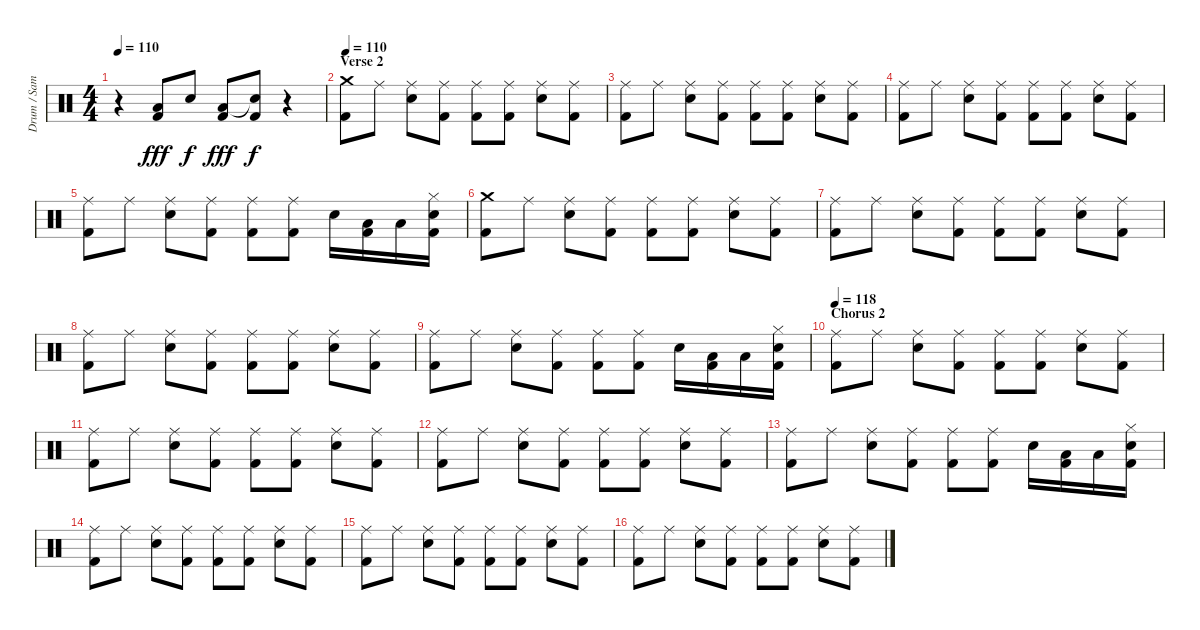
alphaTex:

\track ("Drum / Sam" "Drum / Sam") {instrument percussion}
\staff {score}
\articulation defaults
\ts (4 4)
\tempo 110
\clef neutral
\ks c
r.4{dy fff} ("Low Tom (hit)" "Kick (hit) 2").8 "Snare (hit) 2".8{dy f} ("Low Tom (hit)" "Kick (hit) 2").8{dy fff} ("Snare (hit) 2"{t} "Kick (hit) 2").8{dy f} r.4 |
\section ("" "Verse 2")
\tempo 110
("Crash medium (hit)" "Kick (hit) 2").8 "Ride (middle)".8 ("Ride (middle)" "Snare (hit) 2").8 ("Ride (middle)" "Kick (hit) 2").8 ("Ride (middle)" "Kick (hit) 2").8 ("Ride (middle)" "Kick (hit) 2").8 ("Ride (middle)" "Snare (hit) 2").8 ("Ride (middle)" "Kick (hit) 2").8 |
("Ride (middle)" "Kick (hit) 2").8 "Ride (middle)".8 ("Ride (middle)" "Snare (hit) 2").8 ("Ride (middle)" "Kick (hit) 2").8 ("Ride (middle)" "Kick (hit) 2").8 ("Ride (middle)" "Kick (hit) 2").8 ("Ride (middle)" "Snare (hit) 2").8 ("Ride (middle)" "Kick (hit) 2").8 |
("Ride (middle)" "Kick (hit) 2").8 "Ride (middle)".8 ("Ride (middle)" "Snare (hit) 2").8 ("Ride (middle)" "Kick (hit) 2").8 ("Ride (middle)" "Kick (hit) 2").8 ("Ride (middle)" "Kick (hit) 2").8 ("Ride (middle)" "Snare (hit) 2").8 ("Ride (middle)" "Kick (hit) 2").8 |
("Ride (middle)" "Kick (hit) 2").8 "Ride (middle)".8 ("Ride (middle)" "Snare (hit) 2").8 ("Ride (middle)" "Kick (hit) 2").8 ("Ride (middle)" "Kick (hit) 2").8 ("Ride (middle)" "Kick (hit) 2").8 "Snare (hit) 2".16 ("Low Tom (hit)" "Kick (hit) 2").16 "Low Tom (hit)".16 ("Hi-Hat (closed)" "Snare (hit) 2" "Kick (hit) 2").16 |
("Crash medium (hit)" "Kick (hit) 2").8 "Ride (middle)".8 ("Ride (middle)" "Snare (hit) 2").8 ("Ride (middle)" "Kick (hit) 2").8 ("Ride (middle)" "Kick (hit) 2").8 ("Ride (middle)" "Kick (hit) 2").8 ("Ride (middle)" "Snare (hit) 2").8 ("Ride (middle)" "Kick (hit) 2").8 |
("Ride (middle)" "Kick (hit) 2").8 "Ride (middle)".8 ("Ride (middle)" "Snare (hit) 2").8 ("Ride (middle)" "Kick (hit) 2").8 ("Ride (middle)" "Kick (hit) 2").8 ("Ride (middle)" "Kick (hit) 2").8 ("Ride (middle)" "Snare (hit) 2").8 ("Ride (middle)" "Kick (hit) 2").8 |
("Ride (middle)" "Kick (hit) 2").8 "Ride (middle)".8 ("Ride (middle)" "Snare (hit) 2").8 ("Ride (middle)" "Kick (hit) 2").8 ("Ride (middle)" "Kick (hit) 2").8 ("Ride (middle)" "Kick (hit) 2").8 ("Ride (middle)" "Snare (hit) 2").8 ("Ride (middle)" "Kick (hit) 2").8 |
("Ride (middle)" "Kick (hit) 2").8 "Ride (middle)".8 ("Ride (middle)" "Snare (hit) 2").8 ("Ride (middle)" "Kick (hit) 2").8 ("Ride (middle)" "Kick (hit) 2").8 ("Ride (middle)" "Kick (hit) 2").8 "Snare (hit) 2".16 ("Low Tom (hit)" "Kick (hit) 2").16 "Low Tom (hit)".16 ("Hi-Hat (closed)" "Snare (hit) 2" "Kick (hit) 2").16 |
\section ("" "Chorus 2")
\tempo 118
("Ride (middle)" "Kick (hit) 2").8 "Ride (middle)".8 ("Ride (middle)" "Snare (hit) 2").8 ("Ride (middle)" "Kick (hit) 2").8 ("Ride (middle)" "Kick (hit) 2").8 ("Ride (middle)" "Kick (hit) 2").8 ("Ride (middle)" "Snare (hit) 2").8 ("Ride (middle)" "Kick (hit) 2").8 |
("Ride (middle)" "Kick (hit) 2").8 "Ride (middle)".8 ("Ride (middle)" "Snare (hit) 2").8 ("Ride (middle)" "Kick (hit) 2").8 ("Ride (middle)" "Kick (hit) 2").8 ("Ride (middle)" "Kick (hit) 2").8 ("Ride (middle)" "Snare (hit) 2").8 ("Ride (middle)" "Kick (hit) 2").8 |
("Ride (middle)" "Kick (hit) 2").8 "Ride (middle)".8 ("Ride (middle)" "Snare (hit) 2").8 ("Ride (middle)" "Kick (hit) 2").8 ("Ride (middle)" "Kick (hit) 2").8 ("Ride (middle)" "Kick (hit) 2").8 ("Ride (middle)" "Snare (hit) 2").8 ("Ride (middle)" "Kick (hit) 2").8 |
("Ride (middle)" "Kick (hit) 2").8 "Ride (middle)".8 ("Ride (middle)" "Snare (hit) 2").8 ("Ride (middle)" "Kick (hit) 2").8 ("Ride (middle)" "Kick (hit) 2").8 ("Ride (middle)" "Kick (hit) 2").8 "Snare (hit) 2".16 ("Low Tom (hit)" "Kick (hit) 2").16 "Low Tom (hit)".16 ("Hi-Hat (closed)" "Snare (hit) 2" "Kick (hit) 2").16 |
("Ride (middle)" "Kick (hit) 2").8 "Ride (middle)".8 ("Ride (middle)" "Snare (hit) 2").8 ("Ride (middle)" "Kick (hit) 2").8 ("Ride (middle)" "Kick (hit) 2").8 ("Ride (middle)" "Kick (hit) 2").8 ("Ride (middle)" "Snare (hit) 2").8 ("Ride (middle)" "Kick (hit) 2").8 |
("Ride (middle)" "Kick (hit) 2").8 "Ride (middle)".8 ("Ride (middle)" "Snare (hit) 2").8 ("Ride (middle)" "Kick (hit) 2").8 ("Ride (middle)" "Kick (hit) 2").8 ("Ride (middle)" "Kick (hit) 2").8 ("Ride (middle)" "Snare (hit) 2").8 ("Ride (middle)" "Kick (hit) 2").8 |
("Ride (middle)" "Kick (hit) 2").8 "Ride (middle)".8 ("Ride (middle)" "Snare (hit) 2").8 ("Ride (middle)" "Kick (hit) 2").8 ("Ride (middle)" "Kick (hit) 2").8 ("Ride (middle)" "Kick (hit) 2").8 ("Ride (middle)" "Snare (hit) 2").8 ("Ride (middle)" "Kick (hit) 2").8
